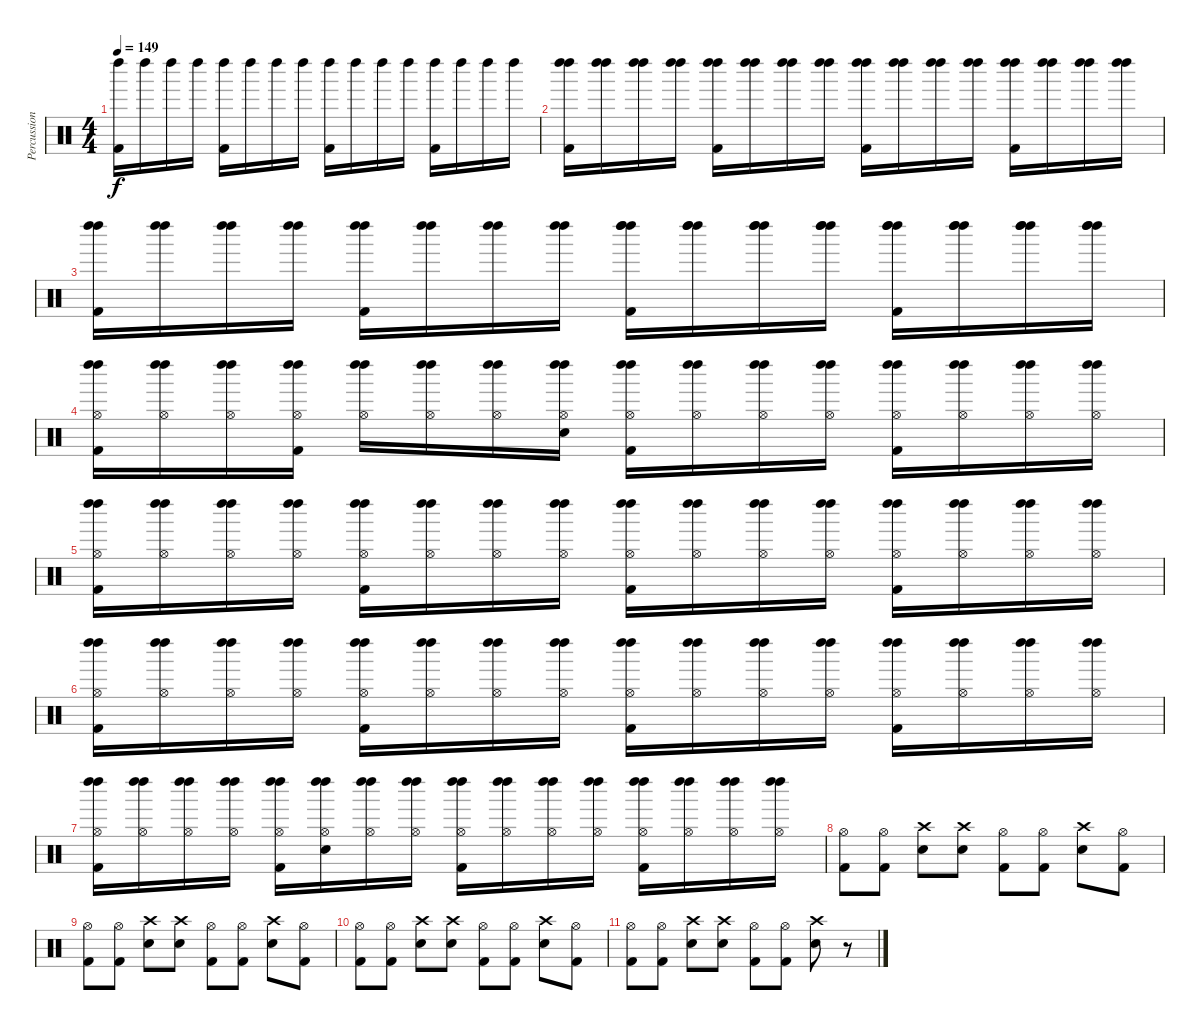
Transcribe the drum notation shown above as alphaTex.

\track ("Percussion" "Percussion") {instrument percussion}
\staff {score}
\articulation defaults
\ts (4 4)
\tempo 149
\clef neutral
\ks c
("Left Maraca (hit)" "Kick (hit) 2").16{dy f} "Left Maraca (hit)".16 "Left Maraca (hit)".16 "Left Maraca (hit)".16 ("Left Maraca (hit)" "Kick (hit) 2").16 "Left Maraca (hit)".16 "Left Maraca (hit)".16 "Left Maraca (hit)".16 ("Left Maraca (hit)" "Kick (hit) 2").16 "Left Maraca (hit)".16 "Left Maraca (hit)".16 "Left Maraca (hit)".16 ("Left Maraca (hit)" "Kick (hit) 2").16 "Left Maraca (hit)".16 "Left Maraca (hit)".16 "Left Maraca (hit)".16 |
("Left Maraca (hit)" "Left Maraca (hit)" "Kick (hit) 2").16 ("Left Maraca (hit)" "Left Maraca (hit)").16 ("Left Maraca (hit)" "Left Maraca (hit)").16 ("Left Maraca (hit)" "Left Maraca (hit)").16 ("Left Maraca (hit)" "Left Maraca (hit)" "Kick (hit) 2").16 ("Left Maraca (hit)" "Left Maraca (hit)").16 ("Left Maraca (hit)" "Left Maraca (hit)").16 ("Left Maraca (hit)" "Left Maraca (hit)").16 ("Left Maraca (hit)" "Left Maraca (hit)" "Kick (hit) 2").16 ("Left Maraca (hit)" "Left Maraca (hit)").16 ("Left Maraca (hit)" "Left Maraca (hit)").16 ("Left Maraca (hit)" "Left Maraca (hit)").16 ("Left Maraca (hit)" "Left Maraca (hit)" "Kick (hit) 2").16 ("Left Maraca (hit)" "Left Maraca (hit)").16 ("Left Maraca (hit)" "Left Maraca (hit)").16 ("Left Maraca (hit)" "Left Maraca (hit)").16 |
("Left Maraca (hit)" "Left Maraca (hit)" "Kick (hit) 2").16 ("Left Maraca (hit)" "Left Maraca (hit)").16 ("Left Maraca (hit)" "Left Maraca (hit)").16 ("Left Maraca (hit)" "Left Maraca (hit)").16 ("Left Maraca (hit)" "Left Maraca (hit)" "Kick (hit) 2").16 ("Left Maraca (hit)" "Left Maraca (hit)").16 ("Left Maraca (hit)" "Left Maraca (hit)").16 ("Left Maraca (hit)" "Left Maraca (hit)").16 ("Left Maraca (hit)" "Left Maraca (hit)" "Left Maraca (hit)" "Kick (hit) 2").16 ("Left Maraca (hit)" "Left Maraca (hit)" "Left Maraca (hit)").16 ("Left Maraca (hit)" "Left Maraca (hit)" "Left Maraca (hit)").16 ("Left Maraca (hit)" "Left Maraca (hit)" "Left Maraca (hit)").16 ("Left Maraca (hit)" "Left Maraca (hit)" "Left Maraca (hit)" "Kick (hit) 2").16 ("Left Maraca (hit)" "Left Maraca (hit)" "Left Maraca (hit)").16 ("Left Maraca (hit)" "Left Maraca (hit)" "Left Maraca (hit)").16 ("Left Maraca (hit)" "Left Maraca (hit)" "Left Maraca (hit)").16 |
("Left Maraca (hit)" "Left Maraca (hit)" "Hi-Hat (open)" "Kick (hit) 2").16 ("Left Maraca (hit)" "Left Maraca (hit)" "Hi-Hat (open)").16 ("Left Maraca (hit)" "Left Maraca (hit)" "Hi-Hat (open)").16 ("Left Maraca (hit)" "Left Maraca (hit)" "Hi-Hat (open)" "Kick (hit) 2").16 ("Left Maraca (hit)" "Left Maraca (hit)" "Hi-Hat (open)").16 ("Left Maraca (hit)" "Left Maraca (hit)" "Hi-Hat (open)").16 ("Left Maraca (hit)" "Left Maraca (hit)" "Hi-Hat (open)").16 ("Left Maraca (hit)" "Left Maraca (hit)" "Hi-Hat (open)" "Snare (hit)").16 ("Left Maraca (hit)" "Left Maraca (hit)" "Hi-Hat (open)" "Kick (hit) 2").16 ("Left Maraca (hit)" "Left Maraca (hit)" "Hi-Hat (open)").16 ("Left Maraca (hit)" "Left Maraca (hit)" "Hi-Hat (open)").16 ("Left Maraca (hit)" "Left Maraca (hit)" "Hi-Hat (open)").16 ("Left Maraca (hit)" "Left Maraca (hit)" "Hi-Hat (open)" "Kick (hit) 2").16 ("Left Maraca (hit)" "Left Maraca (hit)" "Hi-Hat (open)").16 ("Left Maraca (hit)" "Left Maraca (hit)" "Hi-Hat (open)").16 ("Left Maraca (hit)" "Left Maraca (hit)" "Hi-Hat (open)").16 |
("Left Maraca (hit)" "Left Maraca (hit)" "Hi-Hat (open)" "Kick (hit) 2").16 ("Left Maraca (hit)" "Left Maraca (hit)" "Hi-Hat (open)").16 ("Left Maraca (hit)" "Left Maraca (hit)" "Hi-Hat (open)").16 ("Left Maraca (hit)" "Left Maraca (hit)" "Hi-Hat (open)").16 ("Left Maraca (hit)" "Left Maraca (hit)" "Hi-Hat (open)" "Kick (hit) 2").16 ("Left Maraca (hit)" "Left Maraca (hit)" "Hi-Hat (open)").16 ("Left Maraca (hit)" "Left Maraca (hit)" "Hi-Hat (open)").16 ("Left Maraca (hit)" "Left Maraca (hit)" "Hi-Hat (open)").16 ("Left Maraca (hit)" "Left Maraca (hit)" "Hi-Hat (open)" "Kick (hit) 2").16 ("Left Maraca (hit)" "Left Maraca (hit)" "Hi-Hat (open)").16 ("Left Maraca (hit)" "Left Maraca (hit)" "Hi-Hat (open)").16 ("Left Maraca (hit)" "Left Maraca (hit)" "Hi-Hat (open)").16 ("Left Maraca (hit)" "Left Maraca (hit)" "Hi-Hat (open)" "Kick (hit) 2").16 ("Left Maraca (hit)" "Left Maraca (hit)" "Hi-Hat (open)").16 ("Left Maraca (hit)" "Left Maraca (hit)" "Hi-Hat (open)").16 ("Left Maraca (hit)" "Left Maraca (hit)" "Hi-Hat (open)").16 |
("Left Maraca (hit)" "Left Maraca (hit)" "Hi-Hat (open)" "Kick (hit) 2").16 ("Left Maraca (hit)" "Left Maraca (hit)" "Hi-Hat (open)").16 ("Left Maraca (hit)" "Left Maraca (hit)" "Hi-Hat (open)").16 ("Left Maraca (hit)" "Left Maraca (hit)" "Hi-Hat (open)").16 ("Left Maraca (hit)" "Left Maraca (hit)" "Hi-Hat (open)" "Kick (hit) 2").16 ("Left Maraca (hit)" "Left Maraca (hit)" "Hi-Hat (open)").16 ("Left Maraca (hit)" "Left Maraca (hit)" "Hi-Hat (open)").16 ("Left Maraca (hit)" "Left Maraca (hit)" "Hi-Hat (open)").16 ("Left Maraca (hit)" "Left Maraca (hit)" "Hi-Hat (open)" "Kick (hit) 2").16 ("Left Maraca (hit)" "Left Maraca (hit)" "Hi-Hat (open)").16 ("Left Maraca (hit)" "Left Maraca (hit)" "Hi-Hat (open)").16 ("Left Maraca (hit)" "Left Maraca (hit)" "Hi-Hat (open)").16 ("Left Maraca (hit)" "Left Maraca (hit)" "Hi-Hat (open)" "Kick (hit) 2").16 ("Left Maraca (hit)" "Left Maraca (hit)" "Hi-Hat (open)").16 ("Left Maraca (hit)" "Left Maraca (hit)" "Hi-Hat (open)").16 ("Left Maraca (hit)" "Left Maraca (hit)" "Hi-Hat (open)").16 |
("Left Maraca (hit)" "Left Maraca (hit)" "Hi-Hat (open)" "Kick (hit) 2").16 ("Left Maraca (hit)" "Left Maraca (hit)" "Hi-Hat (open)").16 ("Left Maraca (hit)" "Left Maraca (hit)" "Hi-Hat (open)").16 ("Left Maraca (hit)" "Left Maraca (hit)" "Hi-Hat (open)").16 ("Left Maraca (hit)" "Left Maraca (hit)" "Hi-Hat (open)" "Kick (hit) 2").16 ("Left Maraca (hit)" "Left Maraca (hit)" "Hi-Hat (open)" "Snare (hit)").16 ("Left Maraca (hit)" "Left Maraca (hit)" "Hi-Hat (open)").16 ("Left Maraca (hit)" "Left Maraca (hit)" "Hi-Hat (open)").16 ("Left Maraca (hit)" "Left Maraca (hit)" "Hi-Hat (open)" "Kick (hit) 2").16 ("Left Maraca (hit)" "Left Maraca (hit)" "Hi-Hat (open)").16 ("Left Maraca (hit)" "Left Maraca (hit)" "Hi-Hat (open)").16 ("Left Maraca (hit)" "Left Maraca (hit)" "Hi-Hat (open)").16 ("Left Maraca (hit)" "Left Maraca (hit)" "Hi-Hat (open)" "Kick (hit) 2").16 ("Left Maraca (hit)" "Left Maraca (hit)" "Hi-Hat (open)").16 ("Left Maraca (hit)" "Left Maraca (hit)" "Hi-Hat (open)").16 ("Left Maraca (hit)" "Left Maraca (hit)" "Hi-Hat (open)").16 |
("Hi-Hat (open)" "Kick (hit) 2").8 ("Hi-Hat (open)" "Kick (hit) 2").8 ("Crash high (hit)" "Electric Snare (hit)").8 ("Crash high (hit)" "Electric Snare (hit)").8 ("Hi-Hat (open)" "Kick (hit) 2").8 ("Hi-Hat (open)" "Kick (hit) 2").8 ("Crash high (hit)" "Electric Snare (hit)").8 ("Hi-Hat (open)" "Kick (hit) 2").8 |
("Hi-Hat (open)" "Kick (hit) 2").8 ("Hi-Hat (open)" "Kick (hit) 2").8 ("Crash high (hit)" "Electric Snare (hit)").8 ("Crash high (hit)" "Electric Snare (hit)").8 ("Hi-Hat (open)" "Kick (hit) 2").8 ("Hi-Hat (open)" "Kick (hit) 2").8 ("Crash high (hit)" "Electric Snare (hit)").8 ("Hi-Hat (open)" "Kick (hit) 2").8 |
("Hi-Hat (open)" "Kick (hit) 2").8 ("Hi-Hat (open)" "Kick (hit) 2").8 ("Crash high (hit)" "Electric Snare (hit)").8 ("Crash high (hit)" "Electric Snare (hit)").8 ("Hi-Hat (open)" "Kick (hit) 2").8 ("Hi-Hat (open)" "Kick (hit) 2").8 ("Crash high (hit)" "Electric Snare (hit)").8 ("Hi-Hat (open)" "Kick (hit) 2").8 |
("Hi-Hat (open)" "Kick (hit) 2").8 ("Hi-Hat (open)" "Kick (hit) 2").8 ("Crash high (hit)" "Electric Snare (hit)").8 ("Crash high (hit)" "Electric Snare (hit)").8 ("Hi-Hat (open)" "Kick (hit) 2").8 ("Hi-Hat (open)" "Kick (hit) 2").8 ("Crash high (hit)" "Electric Snare (hit)").8 r.8
